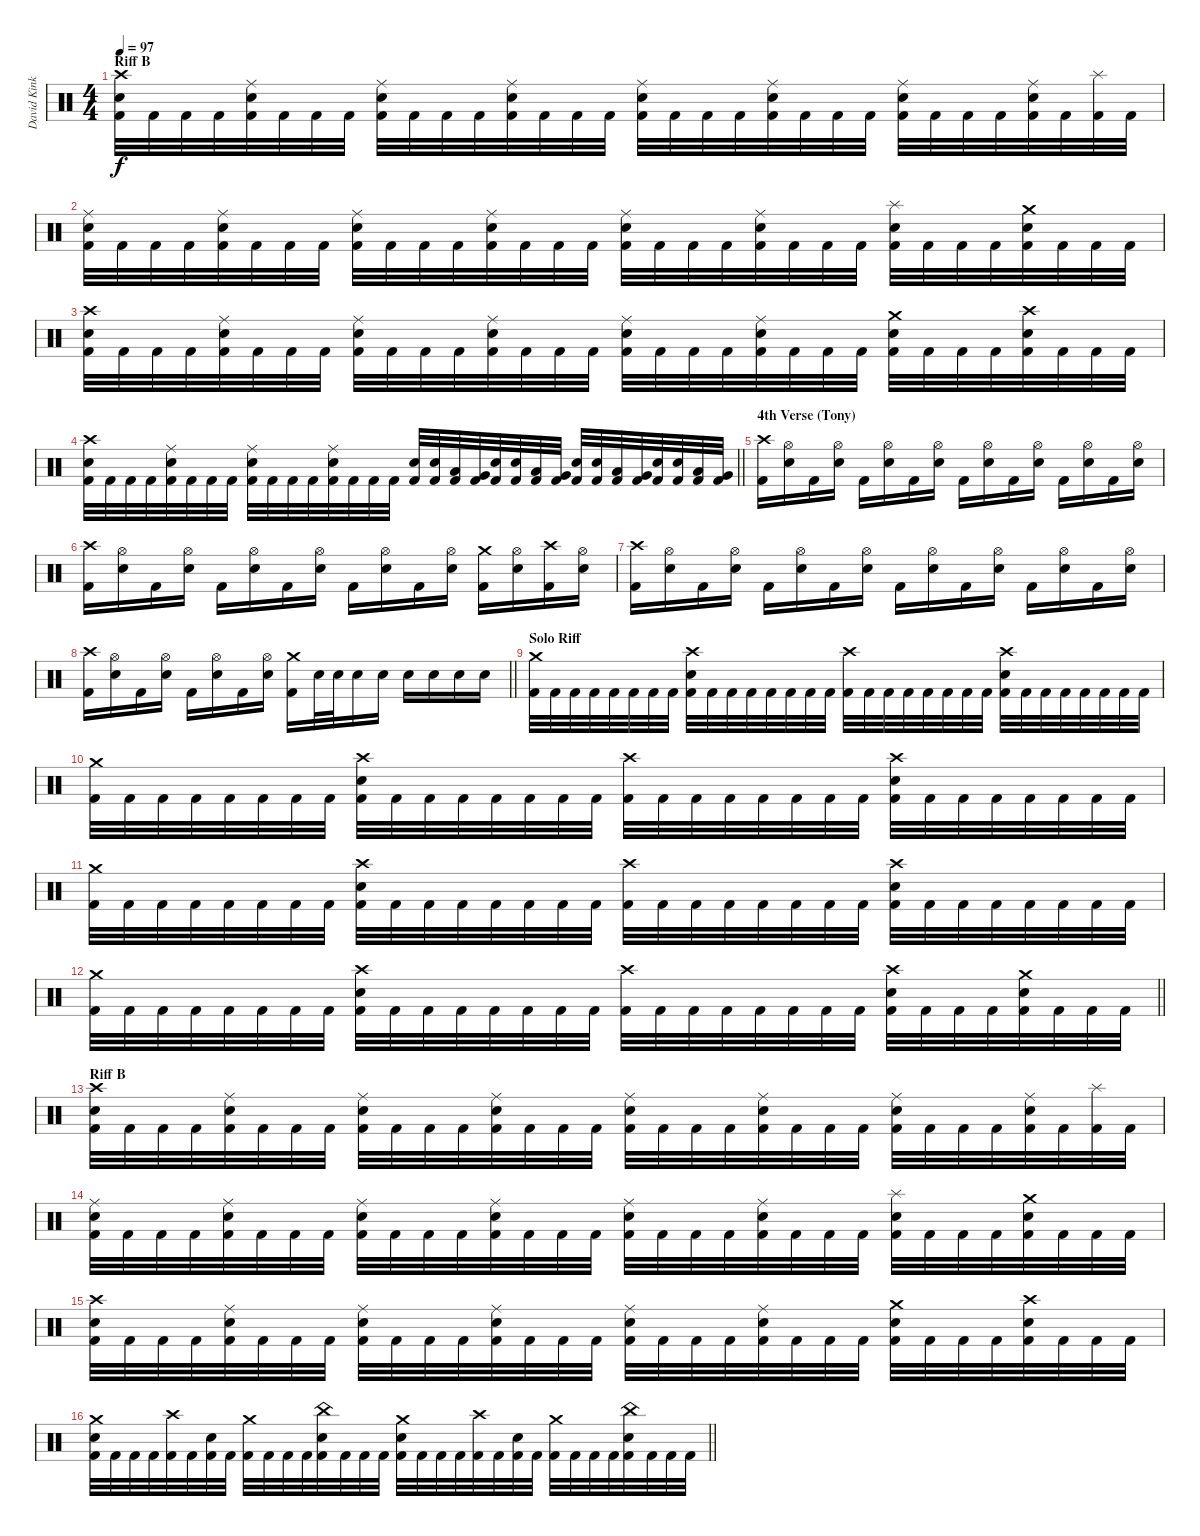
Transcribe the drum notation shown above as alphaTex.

\track ("David Kinkade" "David Kink") {instrument percussion}
\staff {score}
\articulation defaults
\ts (4 4)
\section ("" "Riff B")
\tempo 97
\clef neutral
\ks c
("Crash high (hit)" "Snare (hit) 2" "Kick (hit) 2").32{dy f} "Kick (hit) 2".32 "Kick (hit) 2".32 "Kick (hit) 2".32 ("Ride (middle)" "Snare (hit) 2" "Kick (hit) 2").32 "Kick (hit) 2".32 "Kick (hit) 2".32 "Kick (hit) 2".32 ("Ride (middle)" "Snare (hit) 2" "Kick (hit) 2").32 "Kick (hit) 2".32 "Kick (hit) 2".32 "Kick (hit) 2".32 ("Ride (middle)" "Snare (hit) 2" "Kick (hit) 2").32 "Kick (hit) 2".32 "Kick (hit) 2".32 "Kick (hit) 2".32 ("Ride (middle)" "Snare (hit) 2" "Kick (hit) 2").32 "Kick (hit) 2".32 "Kick (hit) 2".32 "Kick (hit) 2".32 ("Ride (middle)" "Snare (hit) 2" "Kick (hit) 2").32 "Kick (hit) 2".32 "Kick (hit) 2".32 "Kick (hit) 2".32 ("Ride (middle)" "Snare (hit) 2" "Kick (hit) 2").32 "Kick (hit) 2".32 "Kick (hit) 2".32 "Kick (hit) 2".32 ("Ride (middle)" "Snare (hit) 2" "Kick (hit) 2").32 "Kick (hit) 2".32 ("Splash (hit)" "Kick (hit) 2").32 "Kick (hit) 2".32 |
("Ride (middle)" "Snare (hit) 2" "Kick (hit) 2").32 "Kick (hit) 2".32 "Kick (hit) 2".32 "Kick (hit) 2".32 ("Ride (middle)" "Snare (hit) 2" "Kick (hit) 2").32 "Kick (hit) 2".32 "Kick (hit) 2".32 "Kick (hit) 2".32 ("Ride (middle)" "Snare (hit) 2" "Kick (hit) 2").32 "Kick (hit) 2".32 "Kick (hit) 2".32 "Kick (hit) 2".32 ("Ride (middle)" "Snare (hit) 2" "Kick (hit) 2").32 "Kick (hit) 2".32 "Kick (hit) 2".32 "Kick (hit) 2".32 ("Ride (middle)" "Snare (hit) 2" "Kick (hit) 2").32 "Kick (hit) 2".32 "Kick (hit) 2".32 "Kick (hit) 2".32 ("Ride (middle)" "Snare (hit) 2" "Kick (hit) 2").32 "Kick (hit) 2".32 "Kick (hit) 2".32 "Kick (hit) 2".32 ("Splash (hit)" "Snare (hit) 2" "Kick (hit) 2").32 "Kick (hit) 2".32 "Kick (hit) 2".32 "Kick (hit) 2".32 ("Crash medium (hit)" "Snare (hit) 2" "Kick (hit) 2").32 "Kick (hit) 2".32 "Kick (hit) 2".32 "Kick (hit) 2".32 |
("Crash high (hit)" "Snare (hit) 2" "Kick (hit) 2").32 "Kick (hit) 2".32 "Kick (hit) 2".32 "Kick (hit) 2".32 ("Ride (middle)" "Snare (hit) 2" "Kick (hit) 2").32 "Kick (hit) 2".32 "Kick (hit) 2".32 "Kick (hit) 2".32 ("Ride (middle)" "Snare (hit) 2" "Kick (hit) 2").32 "Kick (hit) 2".32 "Kick (hit) 2".32 "Kick (hit) 2".32 ("Ride (middle)" "Snare (hit) 2" "Kick (hit) 2").32 "Kick (hit) 2".32 "Kick (hit) 2".32 "Kick (hit) 2".32 ("Ride (middle)" "Snare (hit) 2" "Kick (hit) 2").32 "Kick (hit) 2".32 "Kick (hit) 2".32 "Kick (hit) 2".32 ("Ride (middle)" "Snare (hit) 2" "Kick (hit) 2").32 "Kick (hit) 2".32 "Kick (hit) 2".32 "Kick (hit) 2".32 ("Crash medium (hit)" "Snare (hit) 2" "Kick (hit) 2").32 "Kick (hit) 2".32 "Kick (hit) 2".32 "Kick (hit) 2".32 ("Crash high (hit)" "Snare (hit) 2" "Kick (hit) 2").32 "Kick (hit) 2".32 "Kick (hit) 2".32 "Kick (hit) 2".32 |
\barLineRight lightlight
("Crash high (hit)" "Snare (hit) 2" "Kick (hit) 2").32 "Kick (hit) 2".32 "Kick (hit) 2".32 "Kick (hit) 2".32 ("Ride (middle)" "Snare (hit) 2" "Kick (hit) 2").32 "Kick (hit) 2".32 "Kick (hit) 2".32 "Kick (hit) 2".32 ("Ride (middle)" "Snare (hit) 2" "Kick (hit) 2").32 "Kick (hit) 2".32 "Kick (hit) 2".32 "Kick (hit) 2".32 ("Ride (middle)" "Snare (hit) 2" "Kick (hit) 2").32 "Kick (hit) 2".32 "Kick (hit) 2".32 "Kick (hit) 2".32 ("Snare (hit) 2" "Kick (hit) 2").32 ("Snare (hit) 2" "Kick (hit) 2").32 ("Low Tom (hit)" "Kick (hit) 2").32 ("Very Low Tom (hit)" "Kick (hit) 2").32 ("Snare (hit) 2" "Kick (hit) 2").32 ("Snare (hit) 2" "Kick (hit) 2").32 ("Low Tom (hit)" "Kick (hit) 2").32 ("Very Low Tom (hit)" "Kick (hit) 2").32 ("Snare (hit) 2" "Kick (hit) 2").32 ("Snare (hit) 2" "Kick (hit) 2").32 ("Low Tom (hit)" "Kick (hit) 2").32 ("Very Low Tom (hit)" "Kick (hit) 2").32 ("Snare (hit) 2" "Kick (hit) 2").32 ("Snare (hit) 2" "Kick (hit) 2").32 ("Low Tom (hit)" "Kick (hit) 2").32 ("Very Low Tom (hit)" "Kick (hit) 2").32 |
\section ("" "4th Verse (Tony)")
("Crash high (hit)" "Kick (hit) 2").16 ("Hi-Hat (open)" "Snare (hit) 2").16 "Kick (hit) 2".16 ("Hi-Hat (open)" "Snare (hit) 2").16 "Kick (hit) 2".16 ("Hi-Hat (open)" "Snare (hit) 2").16 "Kick (hit) 2".16 ("Hi-Hat (open)" "Snare (hit) 2").16 "Kick (hit) 2".16 ("Hi-Hat (open)" "Snare (hit) 2").16 "Kick (hit) 2".16 ("Hi-Hat (open)" "Snare (hit) 2").16 "Kick (hit) 2".16 ("Hi-Hat (open)" "Snare (hit) 2").16 "Kick (hit) 2".16 ("Hi-Hat (open)" "Snare (hit) 2").16 |
("Crash high (hit)" "Kick (hit) 2").16 ("Hi-Hat (open)" "Snare (hit) 2").16 "Kick (hit) 2".16 ("Hi-Hat (open)" "Snare (hit) 2").16 "Kick (hit) 2".16 ("Hi-Hat (open)" "Snare (hit) 2").16 "Kick (hit) 2".16 ("Hi-Hat (open)" "Snare (hit) 2").16 "Kick (hit) 2".16 ("Hi-Hat (open)" "Snare (hit) 2").16 "Kick (hit) 2".16 ("Hi-Hat (open)" "Snare (hit) 2").16 ("Crash medium (hit)" "Kick (hit) 2").16 ("Hi-Hat (open)" "Snare (hit) 2").16 ("Crash high (hit)" "Kick (hit) 2").16 ("Hi-Hat (open)" "Snare (hit) 2").16 |
("Crash high (hit)" "Kick (hit) 2").16 ("Hi-Hat (open)" "Snare (hit) 2").16 "Kick (hit) 2".16 ("Hi-Hat (open)" "Snare (hit) 2").16 "Kick (hit) 2".16 ("Hi-Hat (open)" "Snare (hit) 2").16 "Kick (hit) 2".16 ("Hi-Hat (open)" "Snare (hit) 2").16 "Kick (hit) 2".16 ("Hi-Hat (open)" "Snare (hit) 2").16 "Kick (hit) 2".16 ("Hi-Hat (open)" "Snare (hit) 2").16 "Kick (hit) 2".16 ("Hi-Hat (open)" "Snare (hit) 2").16 "Kick (hit) 2".16 ("Hi-Hat (open)" "Snare (hit) 2").16 |
\barLineRight lightlight
("Crash high (hit)" "Kick (hit) 2").16 ("Hi-Hat (open)" "Snare (hit) 2").16 "Kick (hit) 2".16 ("Hi-Hat (open)" "Snare (hit) 2").16 "Kick (hit) 2".16 ("Hi-Hat (open)" "Snare (hit) 2").16 "Kick (hit) 2".16 ("Hi-Hat (open)" "Snare (hit) 2").16 ("Crash medium (hit)" "Kick (hit) 2").16 "Snare (hit) 2".32 "Snare (hit) 2".32 "Snare (hit) 2".16 "Snare (hit) 2".16 "Snare (hit) 2".16 "Snare (hit) 2".16 "Snare (hit) 2".16 "Snare (hit) 2".16 |
\section ("" "Solo Riff")
("Crash medium (hit)" "Kick (hit) 2").32 "Kick (hit) 2".32 "Kick (hit) 2".32 "Kick (hit) 2".32 "Kick (hit) 2".32 "Kick (hit) 2".32 "Kick (hit) 2".32 "Kick (hit) 2".32 ("Crash high (hit)" "Snare (hit) 2" "Kick (hit) 2").32 "Kick (hit) 2".32 "Kick (hit) 2".32 "Kick (hit) 2".32 "Kick (hit) 2".32 "Kick (hit) 2".32 "Kick (hit) 2".32 "Kick (hit) 2".32 ("Crash high (hit)" "Kick (hit) 2").32 "Kick (hit) 2".32 "Kick (hit) 2".32 "Kick (hit) 2".32 "Kick (hit) 2".32 "Kick (hit) 2".32 "Kick (hit) 2".32 "Kick (hit) 2".32 ("Crash high (hit)" "Snare (hit) 2" "Kick (hit) 2").32 "Kick (hit) 2".32 "Kick (hit) 2".32 "Kick (hit) 2".32 "Kick (hit) 2".32 "Kick (hit) 2".32 "Kick (hit) 2".32 "Kick (hit) 2".32 |
("Crash medium (hit)" "Kick (hit) 2").32 "Kick (hit) 2".32 "Kick (hit) 2".32 "Kick (hit) 2".32 "Kick (hit) 2".32 "Kick (hit) 2".32 "Kick (hit) 2".32 "Kick (hit) 2".32 ("Crash high (hit)" "Snare (hit) 2" "Kick (hit) 2").32 "Kick (hit) 2".32 "Kick (hit) 2".32 "Kick (hit) 2".32 "Kick (hit) 2".32 "Kick (hit) 2".32 "Kick (hit) 2".32 "Kick (hit) 2".32 ("Crash high (hit)" "Kick (hit) 2").32 "Kick (hit) 2".32 "Kick (hit) 2".32 "Kick (hit) 2".32 "Kick (hit) 2".32 "Kick (hit) 2".32 "Kick (hit) 2".32 "Kick (hit) 2".32 ("Crash high (hit)" "Snare (hit) 2" "Kick (hit) 2").32 "Kick (hit) 2".32 "Kick (hit) 2".32 "Kick (hit) 2".32 "Kick (hit) 2".32 "Kick (hit) 2".32 "Kick (hit) 2".32 "Kick (hit) 2".32 |
("Crash medium (hit)" "Kick (hit) 2").32 "Kick (hit) 2".32 "Kick (hit) 2".32 "Kick (hit) 2".32 "Kick (hit) 2".32 "Kick (hit) 2".32 "Kick (hit) 2".32 "Kick (hit) 2".32 ("Crash high (hit)" "Snare (hit) 2" "Kick (hit) 2").32 "Kick (hit) 2".32 "Kick (hit) 2".32 "Kick (hit) 2".32 "Kick (hit) 2".32 "Kick (hit) 2".32 "Kick (hit) 2".32 "Kick (hit) 2".32 ("Crash high (hit)" "Kick (hit) 2").32 "Kick (hit) 2".32 "Kick (hit) 2".32 "Kick (hit) 2".32 "Kick (hit) 2".32 "Kick (hit) 2".32 "Kick (hit) 2".32 "Kick (hit) 2".32 ("Crash high (hit)" "Snare (hit) 2" "Kick (hit) 2").32 "Kick (hit) 2".32 "Kick (hit) 2".32 "Kick (hit) 2".32 "Kick (hit) 2".32 "Kick (hit) 2".32 "Kick (hit) 2".32 "Kick (hit) 2".32 |
\barLineRight lightlight
("Crash medium (hit)" "Kick (hit) 2").32 "Kick (hit) 2".32 "Kick (hit) 2".32 "Kick (hit) 2".32 "Kick (hit) 2".32 "Kick (hit) 2".32 "Kick (hit) 2".32 "Kick (hit) 2".32 ("Crash high (hit)" "Snare (hit) 2" "Kick (hit) 2").32 "Kick (hit) 2".32 "Kick (hit) 2".32 "Kick (hit) 2".32 "Kick (hit) 2".32 "Kick (hit) 2".32 "Kick (hit) 2".32 "Kick (hit) 2".32 ("Crash high (hit)" "Kick (hit) 2").32 "Kick (hit) 2".32 "Kick (hit) 2".32 "Kick (hit) 2".32 "Kick (hit) 2".32 "Kick (hit) 2".32 "Kick (hit) 2".32 "Kick (hit) 2".32 ("Crash high (hit)" "Snare (hit) 2" "Kick (hit) 2").32 "Kick (hit) 2".32 "Kick (hit) 2".32 "Kick (hit) 2".32 ("Crash medium (hit)" "Snare (hit) 2" "Kick (hit) 2").32 "Kick (hit) 2".32 "Kick (hit) 2".32 "Kick (hit) 2".32 |
\section ("" "Riff B")
("Crash high (hit)" "Snare (hit) 2" "Kick (hit) 2").32 "Kick (hit) 2".32 "Kick (hit) 2".32 "Kick (hit) 2".32 ("Ride (middle)" "Snare (hit) 2" "Kick (hit) 2").32 "Kick (hit) 2".32 "Kick (hit) 2".32 "Kick (hit) 2".32 ("Ride (middle)" "Snare (hit) 2" "Kick (hit) 2").32 "Kick (hit) 2".32 "Kick (hit) 2".32 "Kick (hit) 2".32 ("Ride (middle)" "Snare (hit) 2" "Kick (hit) 2").32 "Kick (hit) 2".32 "Kick (hit) 2".32 "Kick (hit) 2".32 ("Ride (middle)" "Snare (hit) 2" "Kick (hit) 2").32 "Kick (hit) 2".32 "Kick (hit) 2".32 "Kick (hit) 2".32 ("Ride (middle)" "Snare (hit) 2" "Kick (hit) 2").32 "Kick (hit) 2".32 "Kick (hit) 2".32 "Kick (hit) 2".32 ("Ride (middle)" "Snare (hit) 2" "Kick (hit) 2").32 "Kick (hit) 2".32 "Kick (hit) 2".32 "Kick (hit) 2".32 ("Ride (middle)" "Snare (hit) 2" "Kick (hit) 2").32 "Kick (hit) 2".32 ("Splash (hit)" "Kick (hit) 2").32 "Kick (hit) 2".32 |
("Ride (middle)" "Snare (hit) 2" "Kick (hit) 2").32 "Kick (hit) 2".32 "Kick (hit) 2".32 "Kick (hit) 2".32 ("Ride (middle)" "Snare (hit) 2" "Kick (hit) 2").32 "Kick (hit) 2".32 "Kick (hit) 2".32 "Kick (hit) 2".32 ("Ride (middle)" "Snare (hit) 2" "Kick (hit) 2").32 "Kick (hit) 2".32 "Kick (hit) 2".32 "Kick (hit) 2".32 ("Ride (middle)" "Snare (hit) 2" "Kick (hit) 2").32 "Kick (hit) 2".32 "Kick (hit) 2".32 "Kick (hit) 2".32 ("Ride (middle)" "Snare (hit) 2" "Kick (hit) 2").32 "Kick (hit) 2".32 "Kick (hit) 2".32 "Kick (hit) 2".32 ("Ride (middle)" "Snare (hit) 2" "Kick (hit) 2").32 "Kick (hit) 2".32 "Kick (hit) 2".32 "Kick (hit) 2".32 ("Splash (hit)" "Snare (hit) 2" "Kick (hit) 2").32 "Kick (hit) 2".32 "Kick (hit) 2".32 "Kick (hit) 2".32 ("Crash medium (hit)" "Snare (hit) 2" "Kick (hit) 2").32 "Kick (hit) 2".32 "Kick (hit) 2".32 "Kick (hit) 2".32 |
("Crash high (hit)" "Snare (hit) 2" "Kick (hit) 2").32 "Kick (hit) 2".32 "Kick (hit) 2".32 "Kick (hit) 2".32 ("Ride (middle)" "Snare (hit) 2" "Kick (hit) 2").32 "Kick (hit) 2".32 "Kick (hit) 2".32 "Kick (hit) 2".32 ("Ride (middle)" "Snare (hit) 2" "Kick (hit) 2").32 "Kick (hit) 2".32 "Kick (hit) 2".32 "Kick (hit) 2".32 ("Ride (middle)" "Snare (hit) 2" "Kick (hit) 2").32 "Kick (hit) 2".32 "Kick (hit) 2".32 "Kick (hit) 2".32 ("Ride (middle)" "Snare (hit) 2" "Kick (hit) 2").32 "Kick (hit) 2".32 "Kick (hit) 2".32 "Kick (hit) 2".32 ("Ride (middle)" "Snare (hit) 2" "Kick (hit) 2").32 "Kick (hit) 2".32 "Kick (hit) 2".32 "Kick (hit) 2".32 ("Crash medium (hit)" "Snare (hit) 2" "Kick (hit) 2").32 "Kick (hit) 2".32 "Kick (hit) 2".32 "Kick (hit) 2".32 ("Crash high (hit)" "Snare (hit) 2" "Kick (hit) 2").32 "Kick (hit) 2".32 "Kick (hit) 2".32 "Kick (hit) 2".32 |
\barLineRight lightlight
("Crash medium (hit)" "Snare (hit) 2" "Kick (hit) 2").32 "Kick (hit) 2".32 "Kick (hit) 2".32 "Kick (hit) 2".32 ("Crash high (hit)" "Kick (hit) 2").32 "Kick (hit) 2".32 ("Snare (hit) 2" "Kick (hit) 2").32 "Kick (hit) 2".32 ("Crash medium (hit)" "Kick (hit) 2").32 "Kick (hit) 2".32 "Kick (hit) 2".32 "Kick (hit) 2".32 ("China (hit)" "Snare (hit) 2" "Kick (hit) 2").32 "Kick (hit) 2".32 "Kick (hit) 2".32 "Kick (hit) 2".32 ("Crash medium (hit)" "Snare (hit) 2" "Kick (hit) 2").32 "Kick (hit) 2".32 "Kick (hit) 2".32 "Kick (hit) 2".32 ("Crash high (hit)" "Kick (hit) 2").32 "Kick (hit) 2".32 ("Snare (hit) 2" "Kick (hit) 2").32 "Kick (hit) 2".32 ("Crash medium (hit)" "Kick (hit) 2").32 "Kick (hit) 2".32 "Kick (hit) 2".32 "Kick (hit) 2".32 ("China (hit)" "Snare (hit) 2" "Kick (hit) 2").32 "Kick (hit) 2".32 "Kick (hit) 2".32 "Kick (hit) 2".32
